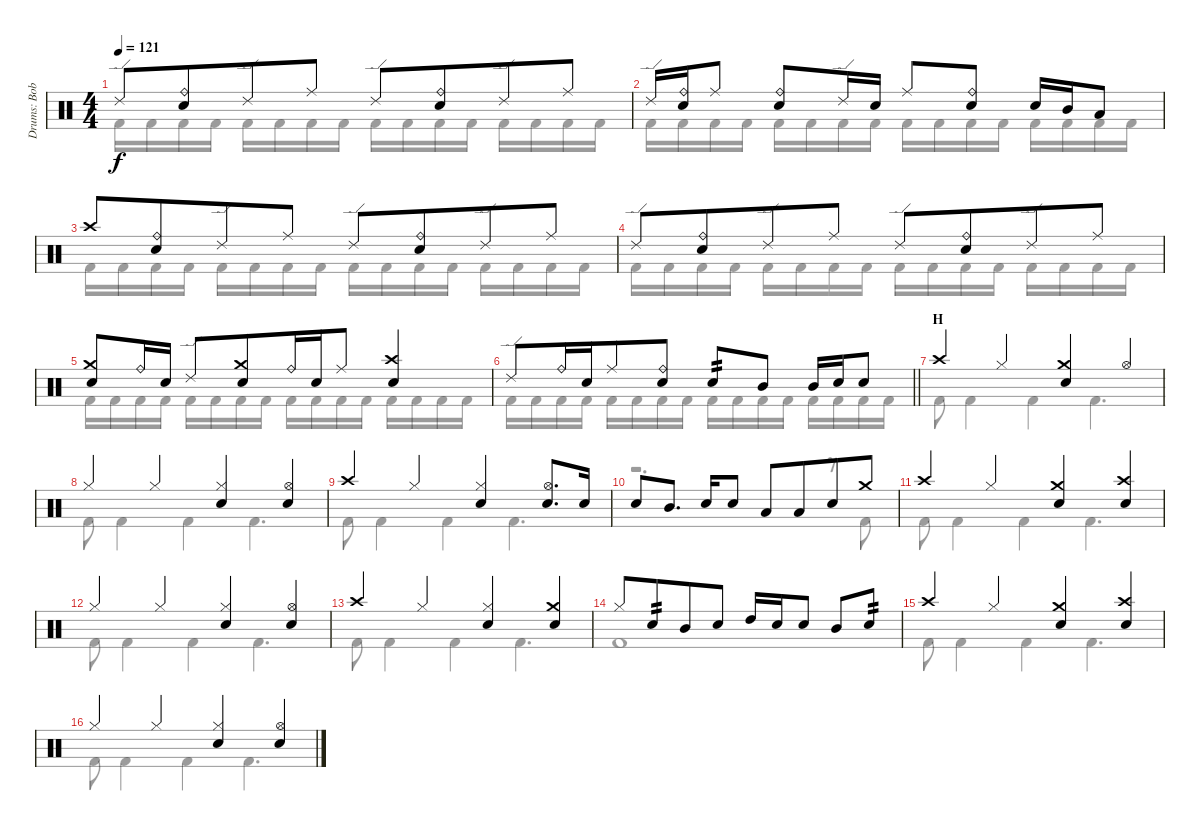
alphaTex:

\track ("Drums: Bobby" "Drums: Bob") {instrument percussion}
\staff {score}
\articulation defaults
\voice
\ts (4 4)
\tempo 121
\clef neutral
\ks c "Ride (edge) 2".8{dy f}
("Ride (bell)" "Snare (hit) 2").8{beam merge} "Ride (edge) 2".8 "Ride (middle)".8 "Ride (edge) 2".8 ("Ride (bell)" "Snare (hit) 2").8{beam merge} "Ride (edge) 2".8 "Ride (middle)".8 |
"Ride (edge) 2".16 ("Ride (bell)" "Snare (hit) 2").16{beam merge} "Ride (middle)".8 ("Ride (bell)" "Snare (hit) 2").8 "Ride (edge) 2".16 "Snare (hit) 2".16 "Ride (middle)".8 ("Ride (bell)" "Snare (hit) 2").8 "Electric Snare (hit)".16 "Mid Tom (hit)".16 "Low Tom (hit)".8 |
"Crash high (hit)".8 ("Ride (bell)" "Snare (hit) 2").8{beam merge} "Ride (edge) 2".8 "Ride (middle)".8 "Ride (edge) 2".8 ("Ride (bell)" "Snare (hit) 2").8{beam merge} "Ride (edge) 2".8 "Ride (middle)".8 |
"Ride (edge) 2".8 ("Ride (bell)" "Snare (hit) 2").8{beam merge} "Ride (edge) 2".8 "Ride (middle)".8 "Ride (edge) 2".8 ("Ride (bell)" "Snare (hit) 2").8{beam merge} "Ride (edge) 2".8 "Ride (middle)".8 |
("Crash medium (hit)" "Snare (hit) 2").8 "Ride (bell)".16{beam merge} "Snare (hit) 2".16 "Ride (edge) 2".8 ("Crash medium (hit)" "Snare (hit) 2").8{beam merge} "Ride (bell)".16 "Snare (hit) 2".16{beam merge} "Ride (middle)".8 ("Crash high (hit)" "Snare (hit) 2").4 |
\barLineRight lightlight "Ride (edge) 2".8{beam merge} "Ride (bell)".16 "Snare (hit) 2".16{beam merge} "Ride (middle)".8
("Ride (bell)" "Snare (hit) 2").8 "Snare (hit) 2".8{tp 2} "Mid Tom (hit)".8 "Mid Tom (hit)".16 "Electric Snare (hit)".16 "Snare (hit) 2".8 |
\section ("" "H")
"Crash high (hit)".4 "Hi-Hat (closed)".4 ("Crash medium (hit)" "Snare (hit) 2").4 "Hi-Hat (open)".4 |
"Hi-Hat (closed)".4 "Hi-Hat (closed)".4 ("Hi-Hat (closed)" "Snare (hit) 2").4 ("Hi-Hat (open)" "Snare (hit) 2").4 |
"Crash high (hit)".4 "Hi-Hat (closed)".4 ("Hi-Hat (closed)" "Snare (hit) 2").4 ("Hi-Hat (open)" "Snare (hit) 2").8{d} "Electric Snare (hit)".16 |
"Snare (hit) 2".8 "Mid Tom (hit)".8{d} "Electric Snare (hit)".16 "Electric Snare (hit)".8 "Low Tom (hit)".8 "Low Tom (hit)".8{beam merge} "Snare (hit) 2".8 "Crash medium (hit)".8 |
"Crash high (hit)".4 "Hi-Hat (closed)".4 ("Crash medium (hit)" "Snare (hit) 2").4 ("Crash high (hit)" "Snare (hit) 2").4 |
"Hi-Hat (closed)".4 "Hi-Hat (closed)".4 ("Hi-Hat (closed)" "Snare (hit) 2").4 ("Hi-Hat (open)" "Snare (hit) 2").4 |
"Crash high (hit)".4 "Hi-Hat (closed)".4 ("Hi-Hat (closed)" "Snare (hit) 2").4 ("Crash medium (hit)" "Snare (hit) 2").4 |
"Hi-Hat (closed)".8 "Snare (hit) 2".8{tp 2 beam merge} "Mid Tom (hit)".8 "Snare (hit) 2".8 "High Tom (hit)".16 "Snare (hit) 2".16{beam merge} "Snare (hit) 2".8 "Mid Tom (hit)".8 "Snare (hit) 2".8{tp 2} |
"Crash high (hit)".4 "Hi-Hat (closed)".4 ("Crash medium (hit)" "Snare (hit) 2").4 ("Crash high (hit)" "Snare (hit) 2").4 |
"Hi-Hat (closed)".4 "Hi-Hat (closed)".4 ("Hi-Hat (closed)" "Snare (hit) 2").4 ("Hi-Hat (open)" "Snare (hit) 2").4
\voice
\clef neutral
\ottava regular
\simile none
\ks c "Kick (hit) 2".16{dy f} "Kick (hit) 2".16 "Kick (hit) 2".16 "Kick (hit) 2".16 "Kick (hit) 2".16 "Kick (hit) 2".16 "Kick (hit) 2".16 "Kick (hit) 2".16 "Kick (hit) 2".16 "Kick (hit) 2".16 "Kick (hit) 2".16 "Kick (hit) 2".16 "Kick (hit) 2".16 "Kick (hit) 2".16 "Kick (hit) 2".16 "Kick (hit) 2".16
|
"Kick (hit) 2".16 "Kick (hit) 2".16 "Kick (hit) 2".16 "Kick (hit) 2".16 "Kick (hit) 2".16 "Kick (hit) 2".16 "Kick (hit) 2".16 "Kick (hit) 2".16 "Kick (hit) 2".16 "Kick (hit) 2".16 "Kick (hit) 2".16 "Kick (hit) 2".16 "Kick (hit) 2".16 "Kick (hit) 2".16 "Kick (hit) 2".16 "Kick (hit) 2".16 |
"Kick (hit) 2".16 "Kick (hit) 2".16 "Kick (hit) 2".16 "Kick (hit) 2".16 "Kick (hit) 2".16 "Kick (hit) 2".16 "Kick (hit) 2".16 "Kick (hit) 2".16 "Kick (hit) 2".16 "Kick (hit) 2".16 "Kick (hit) 2".16 "Kick (hit) 2".16 "Kick (hit) 2".16 "Kick (hit) 2".16 "Kick (hit) 2".16 "Kick (hit) 2".16 |
"Kick (hit) 2".16 "Kick (hit) 2".16 "Kick (hit) 2".16 "Kick (hit) 2".16 "Kick (hit) 2".16 "Kick (hit) 2".16 "Kick (hit) 2".16 "Kick (hit) 2".16 "Kick (hit) 2".16 "Kick (hit) 2".16 "Kick (hit) 2".16 "Kick (hit) 2".16 "Kick (hit) 2".16 "Kick (hit) 2".16 "Kick (hit) 2".16 "Kick (hit) 2".16 |
"Kick (hit) 2".16 "Kick (hit) 2".16 "Kick (hit) 2".16 "Kick (hit) 2".16 "Kick (hit) 2".16 "Kick (hit) 2".16 "Kick (hit) 2".16 "Kick (hit) 2".16 "Kick (hit) 2".16 "Kick (hit) 2".16 "Kick (hit) 2".16 "Kick (hit) 2".16 "Kick (hit) 2".16 "Kick (hit) 2".16 "Kick (hit) 2".16 "Kick (hit) 2".16 |
\barLineRight lightlight "Kick (hit) 2".16 "Kick (hit) 2".16 "Kick (hit) 2".16 "Kick (hit) 2".16 "Kick (hit) 2".16 "Kick (hit) 2".16 "Kick (hit) 2".16 "Kick (hit) 2".16 "Kick (hit) 2".16 "Kick (hit) 2".16 "Kick (hit) 2".16 "Kick (hit) 2".16 "Kick (hit) 2".16 "Kick (hit) 2".16 "Kick (hit) 2".16 "Kick (hit) 2".16
|
"Kick (hit) 2".8 "Kick (hit) 2".4 "Kick (hit) 2".4 "Kick (hit) 2".4{d} |
"Kick (hit) 2".8 "Kick (hit) 2".4 "Kick (hit) 2".4 "Kick (hit) 2".4{d} |
"Kick (hit) 2".8 "Kick (hit) 2".4 "Kick (hit) 2".4 "Kick (hit) 2".4{d} |
r.2{d} r.8 "Kick (hit) 2".8 |
"Kick (hit) 2".8 "Kick (hit) 2".4 "Kick (hit) 2".4 "Kick (hit) 2".4{d} |
"Kick (hit) 2".8 "Kick (hit) 2".4 "Kick (hit) 2".4 "Kick (hit) 2".4{d} |
"Kick (hit) 2".8 "Kick (hit) 2".4 "Kick (hit) 2".4 "Kick (hit) 2".4{d} |
"Kick (hit) 2".1 |
"Kick (hit) 2".8 "Kick (hit) 2".4 "Kick (hit) 2".4 "Kick (hit) 2".4{d} |
"Kick (hit) 2".8 "Kick (hit) 2".4 "Kick (hit) 2".4 "Kick (hit) 2".4{d}
